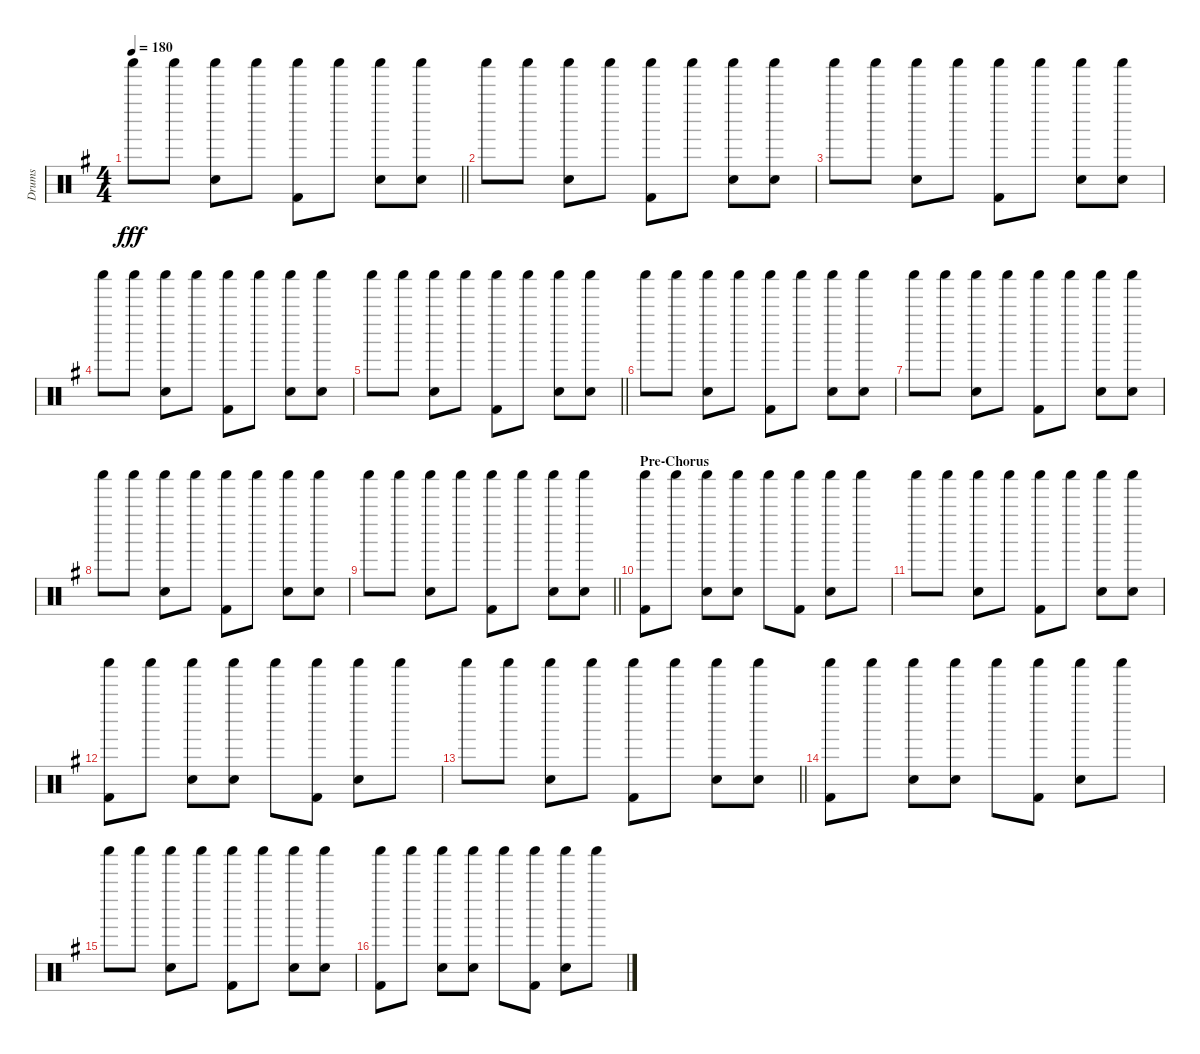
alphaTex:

\track ("Drums" "Drums") {instrument percussion}
\staff {score}
\articulation defaults
\ts (4 4)
\tempo 180
\clef neutral
\barLineRight lightlight
\ks eminor "Shaker (hit)".8{dy fff} "Shaker (hit)".8
("Shaker (hit)" "Snare (hit) 2").8 "Shaker (hit)".8 ("Shaker (hit)" "Kick (hit) 2").8 "Shaker (hit)".8 ("Shaker (hit)" "Snare (hit) 2").8 ("Shaker (hit)" "Snare (hit) 2").8 |
"Shaker (hit)".8 "Shaker (hit)".8 ("Shaker (hit)" "Snare (hit) 2").8 "Shaker (hit)".8 ("Shaker (hit)" "Kick (hit) 2").8 "Shaker (hit)".8 ("Shaker (hit)" "Snare (hit) 2").8 ("Shaker (hit)" "Snare (hit) 2").8 |
"Shaker (hit)".8 "Shaker (hit)".8 ("Shaker (hit)" "Snare (hit) 2").8 "Shaker (hit)".8 ("Shaker (hit)" "Kick (hit) 2").8 "Shaker (hit)".8 ("Shaker (hit)" "Snare (hit) 2").8 ("Shaker (hit)" "Snare (hit) 2").8 |
"Shaker (hit)".8 "Shaker (hit)".8 ("Shaker (hit)" "Snare (hit) 2").8 "Shaker (hit)".8 ("Shaker (hit)" "Kick (hit) 2").8 "Shaker (hit)".8 ("Shaker (hit)" "Snare (hit) 2").8 ("Shaker (hit)" "Snare (hit) 2").8 |
\barLineRight lightlight "Shaker (hit)".8 "Shaker (hit)".8
("Shaker (hit)" "Snare (hit) 2").8 "Shaker (hit)".8 ("Shaker (hit)" "Kick (hit) 2").8 "Shaker (hit)".8 ("Shaker (hit)" "Snare (hit) 2").8 ("Shaker (hit)" "Snare (hit) 2").8 |
"Shaker (hit)".8 "Shaker (hit)".8 ("Shaker (hit)" "Snare (hit) 2").8 "Shaker (hit)".8 ("Shaker (hit)" "Kick (hit) 2").8 "Shaker (hit)".8 ("Shaker (hit)" "Snare (hit) 2").8 ("Shaker (hit)" "Snare (hit) 2").8 |
"Shaker (hit)".8 "Shaker (hit)".8 ("Shaker (hit)" "Snare (hit) 2").8 "Shaker (hit)".8 ("Shaker (hit)" "Kick (hit) 2").8 "Shaker (hit)".8 ("Shaker (hit)" "Snare (hit) 2").8 ("Shaker (hit)" "Snare (hit) 2").8 |
"Shaker (hit)".8 "Shaker (hit)".8 ("Shaker (hit)" "Snare (hit) 2").8 "Shaker (hit)".8 ("Shaker (hit)" "Kick (hit) 2").8 "Shaker (hit)".8 ("Shaker (hit)" "Snare (hit) 2").8 ("Shaker (hit)" "Snare (hit) 2").8 |
\barLineRight lightlight "Shaker (hit)".8 "Shaker (hit)".8
("Shaker (hit)" "Snare (hit) 2").8 "Shaker (hit)".8 ("Shaker (hit)" "Kick (hit) 2").8 "Shaker (hit)".8 ("Shaker (hit)" "Snare (hit) 2").8 ("Shaker (hit)" "Snare (hit) 2").8 |
\section ("" "Pre-Chorus")
("Shaker (hit)" "Kick (hit) 2").8 "Shaker (hit)".8 ("Shaker (hit)" "Snare (hit) 2").8 ("Shaker (hit)" "Snare (hit) 2").8 "Shaker (hit)".8 ("Shaker (hit)" "Kick (hit) 2").8 ("Shaker (hit)" "Snare (hit) 2").8 "Shaker (hit)".8 |
"Shaker (hit)".8 "Shaker (hit)".8 ("Shaker (hit)" "Snare (hit) 2").8 "Shaker (hit)".8 ("Shaker (hit)" "Kick (hit) 2").8 "Shaker (hit)".8 ("Shaker (hit)" "Snare (hit) 2").8 ("Shaker (hit)" "Snare (hit) 2").8 |
("Shaker (hit)" "Kick (hit) 2").8 "Shaker (hit)".8 ("Shaker (hit)" "Snare (hit) 2").8 ("Shaker (hit)" "Snare (hit) 2").8 "Shaker (hit)".8 ("Shaker (hit)" "Kick (hit) 2").8 ("Shaker (hit)" "Snare (hit) 2").8 "Shaker (hit)".8 |
\barLineRight lightlight "Shaker (hit)".8 "Shaker (hit)".8
("Shaker (hit)" "Snare (hit) 2").8 "Shaker (hit)".8 ("Shaker (hit)" "Kick (hit) 2").8 "Shaker (hit)".8 ("Shaker (hit)" "Snare (hit) 2").8 ("Shaker (hit)" "Snare (hit) 2").8 |
("Shaker (hit)" "Kick (hit) 2").8 "Shaker (hit)".8 ("Shaker (hit)" "Snare (hit) 2").8 ("Shaker (hit)" "Snare (hit) 2").8 "Shaker (hit)".8 ("Shaker (hit)" "Kick (hit) 2").8 ("Shaker (hit)" "Snare (hit) 2").8 "Shaker (hit)".8 |
"Shaker (hit)".8 "Shaker (hit)".8 ("Shaker (hit)" "Snare (hit) 2").8 "Shaker (hit)".8 ("Shaker (hit)" "Kick (hit) 2").8 "Shaker (hit)".8 ("Shaker (hit)" "Snare (hit) 2").8 ("Shaker (hit)" "Snare (hit) 2").8 |
("Shaker (hit)" "Kick (hit) 2").8 "Shaker (hit)".8 ("Shaker (hit)" "Snare (hit) 2").8 ("Shaker (hit)" "Snare (hit) 2").8 "Shaker (hit)".8 ("Shaker (hit)" "Kick (hit) 2").8 ("Shaker (hit)" "Snare (hit) 2").8 "Shaker (hit)".8
